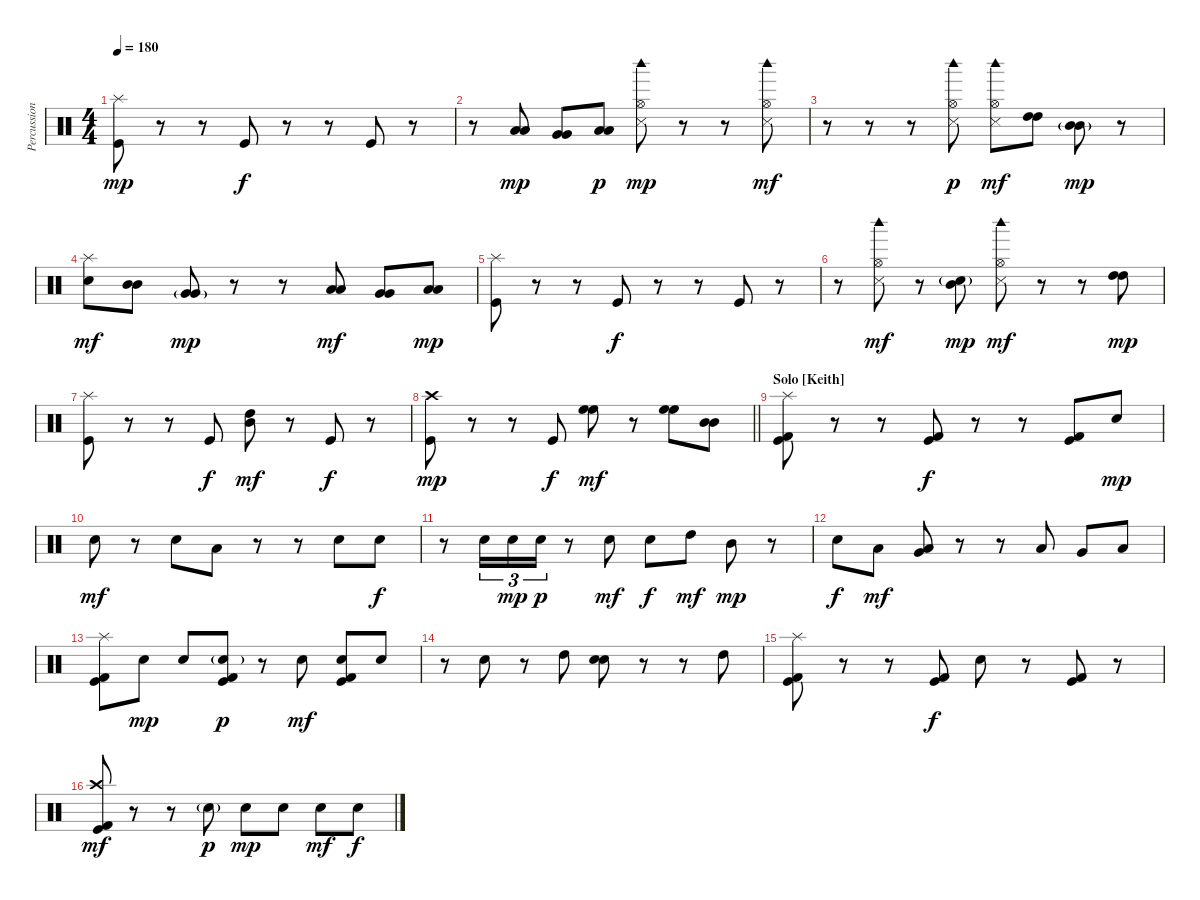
\track ("Percussion" "Percussion") {instrument percussion}
\staff {score}
\articulation defaults
\ts (4 4)
\tempo 180
\clef neutral
\ks c
("Splash (hit)" "Kick (hit)").8{dy mp} r.8 r.8 "Kick (hit)".8{dy f} r.8 r.8 "Kick (hit)".8 r.8 |
r.8 ("Low Tom (hit)" "Low Tom (hit)").8{dy mp} ("Very Low Tom (hit)" "Very Low Tom (hit)").8 ("Low Floor Tom (hit)" "Low Floor Tom (hit)").8{dy p} ("Hi-Hat (open)" "Snare (side stick) 3" "Woodblock high (hit)").8{dy mp} r.8 r.8 ("Hi-Hat (open)" "Snare (side stick) 3" "Woodblock high (hit)").8{dy mf} |
r.8 r.8 r.8 ("Hi-Hat (open)" "Snare (side stick) 3" "Woodblock high (hit)").8{dy p} ("Hi-Hat (open)" "Snare (side stick) 3" "Woodblock high (hit)").8{dy mf} ("High Tom (hit)" "High Tom (hit)").8 ("Mid Tom (hit)"{g} "Mid Tom (hit)"{g}).8{dy mp} r.8 |
("Splash (hit)" "Electric Snare (hit)").8{dy mf} ("Mid Tom (hit)" "Mid Tom (hit)").8 ("Very Low Tom (hit)"{g} "Very Low Tom (hit)"{g}).8{dy mp} r.8 r.8 ("Low Tom (hit)" "Low Tom (hit)").8{dy mf} ("Very Low Tom (hit)" "Very Low Tom (hit)").8 ("Low Floor Tom (hit)" "Low Floor Tom (hit)").8{dy mp} |
("Splash (hit)" "Kick (hit)").8 r.8 r.8 "Kick (hit)".8{dy f} r.8 r.8 "Kick (hit)".8 r.8 |
r.8 ("Hi-Hat (open)" "Snare (side stick) 3" "Woodblock high (hit)").8{dy mf} r.8 ("Mid Tom (hit)" "Electric Snare (hit)"{g}).8{dy mp} ("Hi-Hat (open)" "Snare (side stick) 3" "Woodblock high (hit)").8{dy mf} r.8 r.8 ("High Tom (hit)" "High Tom (hit)").8{dy mp} |
("Splash (hit)" "Kick (hit)").8 r.8 r.8 "Kick (hit)".8{dy f} ("Mid Tom (hit)" "High Tom (hit)").8{dy mf} r.8 "Kick (hit)".8{dy f} r.8 |
\barLineRight lightlight
("Crash high (hit)" "Kick (hit)").8{dy mp} r.8 r.8 "Kick (hit)".8{dy f} ("High Floor Tom (hit)" "High Floor Tom (hit)").8{dy mf} r.8 ("High Floor Tom (hit)" "High Floor Tom (hit)").8 ("Mid Tom (hit)" "Mid Tom (hit)").8 |
\section ("" "Solo [Keith]")
("Splash (hit)" "Kick (hit)" "Kick (hit) 2").8 r.8 r.8 ("Kick (hit)" "Kick (hit) 2").8{dy f} r.8 r.8 ("Kick (hit)" "Kick (hit) 2").8 "Electric Snare (hit)".8{dy mp} |
"Electric Snare (hit)".8{dy mf} r.8 "Electric Snare (hit)".8 "Low Tom (hit)".8 r.8 r.8 "Electric Snare (hit)".8 "Electric Snare (hit)".8{dy f} |
r.8 "Electric Snare (hit)".16{tu (3 2)} "Electric Snare (hit)".16{tu (3 2) dy mp} "Electric Snare (hit)".16{tu (3 2) dy p} r.8 "Electric Snare (hit)".8{dy mf} "Electric Snare (hit)".8{dy f} "High Tom (hit)".8{dy mf} "Mid Tom (hit)".8{dy mp} r.8 |
"Electric Snare (hit)".8{dy f} "Low Tom (hit)".8{dy mf} ("Very Low Tom (hit)" "Low Floor Tom (hit)").8 r.8 r.8 "Low Tom (hit)".8 "Very Low Tom (hit)".8 "Low Floor Tom (hit)".8 |
("Splash (hit)" "Kick (hit)" "Kick (hit) 2").8 "Electric Snare (hit)".8{dy mp} "Electric Snare (hit)".8 ("Electric Snare (hit)"{g} "Kick (hit)" "Kick (hit) 2").8{dy p} r.8 "Electric Snare (hit)".8{dy mf} ("Electric Snare (hit)" "Kick (hit)" "Kick (hit) 2").8 "Electric Snare (hit)".8 |
r.8 "Electric Snare (hit)".8 r.8 "High Tom (hit)".8 ("Electric Snare (hit)" "Electric Snare (hit)").8 r.8 r.8 "High Tom (hit)".8 |
("Splash (hit)" "Kick (hit)" "Kick (hit) 2").8 r.8 r.8 ("Kick (hit)" "Kick (hit) 2").8{dy f} "Electric Snare (hit)".8 r.8 ("Kick (hit)" "Kick (hit) 2").8 r.8 |
("Crash high (hit)" "Kick (hit)" "Kick (hit) 2").8{dy mf} r.8 r.8 "Electric Snare (hit)"{g}.8{dy p} "Electric Snare (hit)".8{dy mp} "Electric Snare (hit)".8 "Electric Snare (hit)".8{dy mf} "Electric Snare (hit)".8{dy f}
